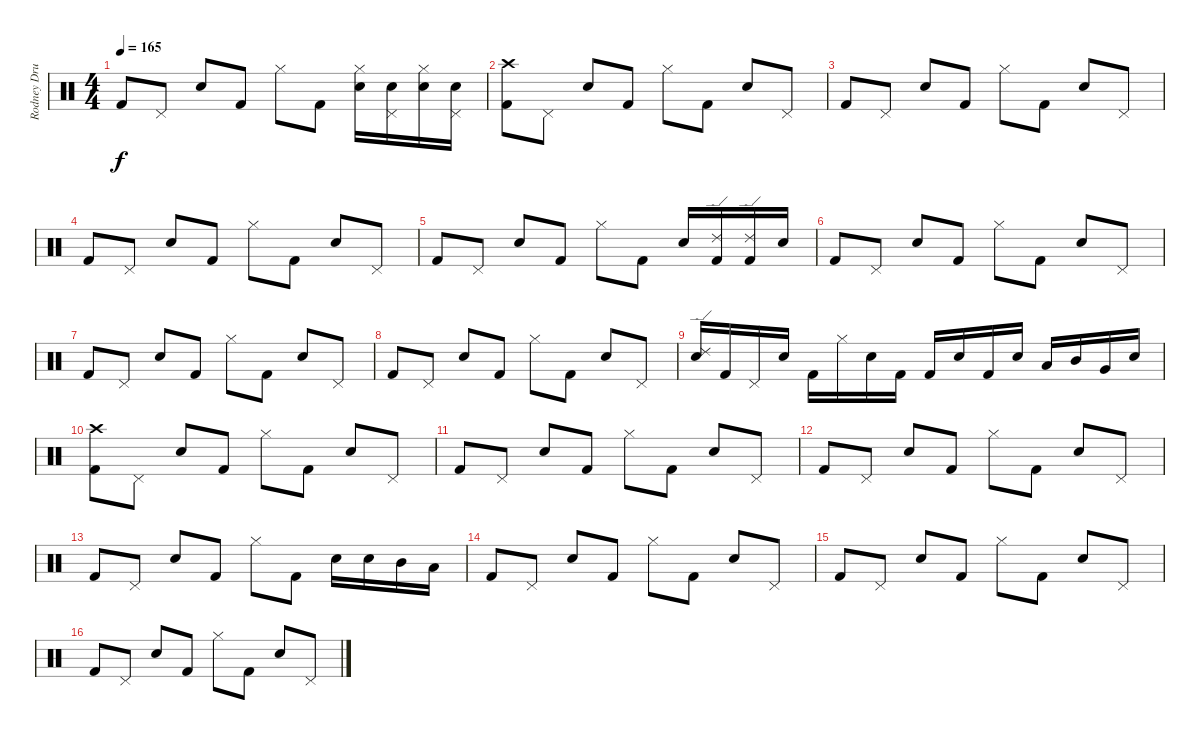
\track ("Rodney Drums" "Rodney Dru") {instrument percussion}
\staff {score}
\articulation defaults
\ts (4 4)
\tempo 165
\clef neutral
\ks c "Kick (hit) 2".8{dy f} "Pedal Hi-Hat (hit)".8 "Electric Snare (hit)".8 "Kick (hit) 2".8 "Hi-Hat (closed)".8 "Kick (hit) 2".8
("Electric Snare (hit)" "Hi-Hat (closed)").16 ("Electric Snare (hit)" "Pedal Hi-Hat (hit)").16 ("Electric Snare (hit)" "Hi-Hat (closed)").16 ("Electric Snare (hit)" "Pedal Hi-Hat (hit)").16 |
("Crash high (hit)" "Kick (hit) 2").8 "Pedal Hi-Hat (hit)".8 "Electric Snare (hit)".8 "Kick (hit) 2".8 "Hi-Hat (closed)".8 "Kick (hit) 2".8 "Electric Snare (hit)".8 "Pedal Hi-Hat (hit)".8 |
"Kick (hit) 2".8 "Pedal Hi-Hat (hit)".8 "Electric Snare (hit)".8 "Kick (hit) 2".8 "Hi-Hat (closed)".8 "Kick (hit) 2".8 "Electric Snare (hit)".8 "Pedal Hi-Hat (hit)".8 |
"Kick (hit) 2".8 "Pedal Hi-Hat (hit)".8 "Electric Snare (hit)".8 "Kick (hit) 2".8 "Hi-Hat (closed)".8 "Kick (hit) 2".8 "Electric Snare (hit)".8 "Pedal Hi-Hat (hit)".8 |
"Kick (hit) 2".8 "Pedal Hi-Hat (hit)".8 "Electric Snare (hit)".8 "Kick (hit) 2".8 "Hi-Hat (closed)".8 "Kick (hit) 2".8 "Electric Snare (hit)".16 ("Ride (edge) 2" "Kick (hit) 2").16 ("Ride (edge) 2" "Kick (hit) 2").16 "Electric Snare (hit)".16 |
"Kick (hit) 2".8 "Pedal Hi-Hat (hit)".8 "Electric Snare (hit)".8 "Kick (hit) 2".8 "Hi-Hat (closed)".8 "Kick (hit) 2".8 "Electric Snare (hit)".8 "Pedal Hi-Hat (hit)".8 |
"Kick (hit) 2".8 "Pedal Hi-Hat (hit)".8 "Electric Snare (hit)".8 "Kick (hit) 2".8 "Hi-Hat (closed)".8 "Kick (hit) 2".8 "Electric Snare (hit)".8 "Pedal Hi-Hat (hit)".8 |
"Kick (hit) 2".8 "Pedal Hi-Hat (hit)".8 "Electric Snare (hit)".8 "Kick (hit) 2".8 "Hi-Hat (closed)".8 "Kick (hit) 2".8 "Electric Snare (hit)".8 "Pedal Hi-Hat (hit)".8 |
("Ride (edge) 2" "Electric Snare (hit)").16 "Kick (hit) 2".16 "Pedal Hi-Hat (hit)".16 "Electric Snare (hit)".16 "Kick (hit) 2".16 "Hi-Hat (closed)".16 "Electric Snare (hit)".16 "Kick (hit) 2".16 "Kick (hit) 2".16 "Electric Snare (hit)".16 "Kick (hit) 2".16 "Electric Snare (hit)".16 "Low Tom (hit)".16 "Mid Tom (hit)".16 "Very Low Tom (hit)".16 "Electric Snare (hit)".16 |
("Crash high (hit)" "Kick (hit) 2").8 "Pedal Hi-Hat (hit)".8 "Electric Snare (hit)".8 "Kick (hit) 2".8 "Hi-Hat (closed)".8 "Kick (hit) 2".8 "Electric Snare (hit)".8 "Pedal Hi-Hat (hit)".8 |
"Kick (hit) 2".8 "Pedal Hi-Hat (hit)".8 "Electric Snare (hit)".8 "Kick (hit) 2".8 "Hi-Hat (closed)".8 "Kick (hit) 2".8 "Electric Snare (hit)".8 "Pedal Hi-Hat (hit)".8 |
"Kick (hit) 2".8 "Pedal Hi-Hat (hit)".8 "Electric Snare (hit)".8 "Kick (hit) 2".8 "Hi-Hat (closed)".8 "Kick (hit) 2".8 "Electric Snare (hit)".8 "Pedal Hi-Hat (hit)".8 |
"Kick (hit) 2".8 "Pedal Hi-Hat (hit)".8 "Electric Snare (hit)".8 "Kick (hit) 2".8 "Hi-Hat (closed)".8 "Kick (hit) 2".8 "Electric Snare (hit)".16 "Electric Snare (hit)".16 "Mid Tom (hit)".16 "Low Tom (hit)".16 |
"Kick (hit) 2".8 "Pedal Hi-Hat (hit)".8 "Electric Snare (hit)".8 "Kick (hit) 2".8 "Hi-Hat (closed)".8 "Kick (hit) 2".8 "Electric Snare (hit)".8 "Pedal Hi-Hat (hit)".8 |
"Kick (hit) 2".8 "Pedal Hi-Hat (hit)".8 "Electric Snare (hit)".8 "Kick (hit) 2".8 "Hi-Hat (closed)".8 "Kick (hit) 2".8 "Electric Snare (hit)".8 "Pedal Hi-Hat (hit)".8 |
"Kick (hit) 2".8 "Pedal Hi-Hat (hit)".8 "Electric Snare (hit)".8 "Kick (hit) 2".8 "Hi-Hat (closed)".8 "Kick (hit) 2".8 "Electric Snare (hit)".8 "Pedal Hi-Hat (hit)".8
